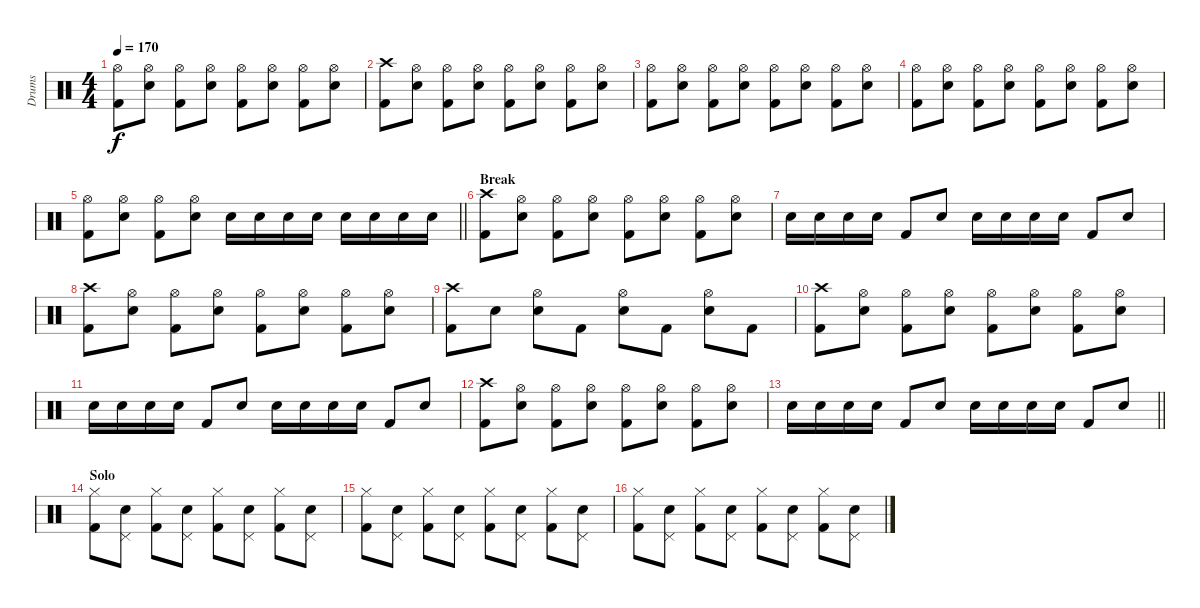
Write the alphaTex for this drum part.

\track ("Drums" "Drums") {instrument percussion}
\staff {score}
\articulation defaults
\ts (4 4)
\tempo 170
\clef neutral
\ks c
("Hi-Hat (open)" "Kick (hit) 2").8{dy f} ("Hi-Hat (open)" "Electric Snare (hit)").8 ("Hi-Hat (open)" "Kick (hit) 2").8 ("Hi-Hat (open)" "Electric Snare (hit)").8 ("Hi-Hat (open)" "Kick (hit) 2").8 ("Hi-Hat (open)" "Electric Snare (hit)").8 ("Hi-Hat (open)" "Kick (hit) 2").8 ("Hi-Hat (open)" "Electric Snare (hit)").8 |
("Crash high (hit)" "Kick (hit) 2").8 ("Hi-Hat (open)" "Electric Snare (hit)").8 ("Hi-Hat (open)" "Kick (hit) 2").8 ("Hi-Hat (open)" "Electric Snare (hit)").8 ("Hi-Hat (open)" "Kick (hit) 2").8 ("Hi-Hat (open)" "Electric Snare (hit)").8 ("Hi-Hat (open)" "Kick (hit) 2").8 ("Hi-Hat (open)" "Electric Snare (hit)").8 |
("Hi-Hat (open)" "Kick (hit) 2").8 ("Hi-Hat (open)" "Electric Snare (hit)").8 ("Hi-Hat (open)" "Kick (hit) 2").8 ("Hi-Hat (open)" "Electric Snare (hit)").8 ("Hi-Hat (open)" "Kick (hit) 2").8 ("Hi-Hat (open)" "Electric Snare (hit)").8 ("Hi-Hat (open)" "Kick (hit) 2").8 ("Hi-Hat (open)" "Electric Snare (hit)").8 |
("Hi-Hat (open)" "Kick (hit) 2").8 ("Hi-Hat (open)" "Electric Snare (hit)").8 ("Hi-Hat (open)" "Kick (hit) 2").8 ("Hi-Hat (open)" "Electric Snare (hit)").8 ("Hi-Hat (open)" "Kick (hit) 2").8 ("Hi-Hat (open)" "Electric Snare (hit)").8 ("Hi-Hat (open)" "Kick (hit) 2").8 ("Hi-Hat (open)" "Electric Snare (hit)").8 |
\barLineRight lightlight
("Hi-Hat (open)" "Kick (hit) 2").8 ("Hi-Hat (open)" "Electric Snare (hit)").8 ("Hi-Hat (open)" "Kick (hit) 2").8 ("Hi-Hat (open)" "Electric Snare (hit)").8 "Electric Snare (hit)".16 "Electric Snare (hit)".16 "Electric Snare (hit)".16 "Electric Snare (hit)".16 "Electric Snare (hit)".16 "Electric Snare (hit)".16 "Electric Snare (hit)".16 "Electric Snare (hit)".16 |
\section ("" "Break")
("Crash high (hit)" "Kick (hit) 2").8 ("Hi-Hat (open)" "Electric Snare (hit)").8 ("Hi-Hat (open)" "Kick (hit) 2").8 ("Hi-Hat (open)" "Electric Snare (hit)").8 ("Hi-Hat (open)" "Kick (hit) 2").8 ("Hi-Hat (open)" "Electric Snare (hit)").8 ("Hi-Hat (open)" "Kick (hit) 2").8 ("Hi-Hat (open)" "Electric Snare (hit)").8 |
"Electric Snare (hit)".16 "Electric Snare (hit)".16 "Electric Snare (hit)".16 "Electric Snare (hit)".16 "Kick (hit) 2".8 "Electric Snare (hit)".8 "Electric Snare (hit)".16 "Electric Snare (hit)".16 "Electric Snare (hit)".16 "Electric Snare (hit)".16 "Kick (hit) 2".8 "Electric Snare (hit)".8 |
("Crash high (hit)" "Kick (hit) 2").8 ("Hi-Hat (open)" "Electric Snare (hit)").8 ("Hi-Hat (open)" "Kick (hit) 2").8 ("Hi-Hat (open)" "Electric Snare (hit)").8 ("Hi-Hat (open)" "Kick (hit) 2").8 ("Hi-Hat (open)" "Electric Snare (hit)").8 ("Hi-Hat (open)" "Kick (hit) 2").8 ("Hi-Hat (open)" "Electric Snare (hit)").8 |
("Crash high (hit)" "Kick (hit) 2").8 "Electric Snare (hit)".8 ("Hi-Hat (open)" "Electric Snare (hit)").8 "Kick (hit) 2".8 ("Hi-Hat (open)" "Electric Snare (hit)").8 "Kick (hit) 2".8 ("Hi-Hat (open)" "Electric Snare (hit)").8 "Kick (hit) 2".8 |
("Crash high (hit)" "Kick (hit) 2").8 ("Hi-Hat (open)" "Electric Snare (hit)").8 ("Hi-Hat (open)" "Kick (hit) 2").8 ("Hi-Hat (open)" "Electric Snare (hit)").8 ("Hi-Hat (open)" "Kick (hit) 2").8 ("Hi-Hat (open)" "Electric Snare (hit)").8 ("Hi-Hat (open)" "Kick (hit) 2").8 ("Hi-Hat (open)" "Electric Snare (hit)").8 |
"Electric Snare (hit)".16 "Electric Snare (hit)".16 "Electric Snare (hit)".16 "Electric Snare (hit)".16 "Kick (hit) 2".8 "Electric Snare (hit)".8 "Electric Snare (hit)".16 "Electric Snare (hit)".16 "Electric Snare (hit)".16 "Electric Snare (hit)".16 "Kick (hit) 2".8 "Electric Snare (hit)".8 |
("Crash high (hit)" "Kick (hit) 2").8 ("Hi-Hat (open)" "Electric Snare (hit)").8 ("Hi-Hat (open)" "Kick (hit) 2").8 ("Hi-Hat (open)" "Electric Snare (hit)").8 ("Hi-Hat (open)" "Kick (hit) 2").8 ("Hi-Hat (open)" "Electric Snare (hit)").8 ("Hi-Hat (open)" "Kick (hit) 2").8 ("Hi-Hat (open)" "Electric Snare (hit)").8 |
\barLineRight lightlight "Electric Snare (hit)".16 "Electric Snare (hit)".16 "Electric Snare (hit)".16 "Electric Snare (hit)".16 "Kick (hit) 2".8 "Electric Snare (hit)".8 "Electric Snare (hit)".16 "Electric Snare (hit)".16 "Electric Snare (hit)".16 "Electric Snare (hit)".16 "Kick (hit) 2".8 "Electric Snare (hit)".8
|
\section ("" "Solo")
("Hi-Hat (closed)" "Kick (hit) 2").8 ("Pedal Hi-Hat (hit)" "Electric Snare (hit)").8 ("Hi-Hat (closed)" "Kick (hit) 2").8 ("Pedal Hi-Hat (hit)" "Electric Snare (hit)").8 ("Hi-Hat (closed)" "Kick (hit) 2").8 ("Pedal Hi-Hat (hit)" "Electric Snare (hit)").8 ("Hi-Hat (closed)" "Kick (hit) 2").8 ("Pedal Hi-Hat (hit)" "Electric Snare (hit)").8 |
("Hi-Hat (closed)" "Kick (hit) 2").8 ("Pedal Hi-Hat (hit)" "Electric Snare (hit)").8 ("Hi-Hat (closed)" "Kick (hit) 2").8 ("Pedal Hi-Hat (hit)" "Electric Snare (hit)").8 ("Hi-Hat (closed)" "Kick (hit) 2").8 ("Pedal Hi-Hat (hit)" "Electric Snare (hit)").8 ("Hi-Hat (closed)" "Kick (hit) 2").8 ("Pedal Hi-Hat (hit)" "Electric Snare (hit)").8 |
("Hi-Hat (closed)" "Kick (hit) 2").8 ("Pedal Hi-Hat (hit)" "Electric Snare (hit)").8 ("Hi-Hat (closed)" "Kick (hit) 2").8 ("Pedal Hi-Hat (hit)" "Electric Snare (hit)").8 ("Hi-Hat (closed)" "Kick (hit) 2").8 ("Pedal Hi-Hat (hit)" "Electric Snare (hit)").8 ("Hi-Hat (closed)" "Kick (hit) 2").8 ("Pedal Hi-Hat (hit)" "Electric Snare (hit)").8
